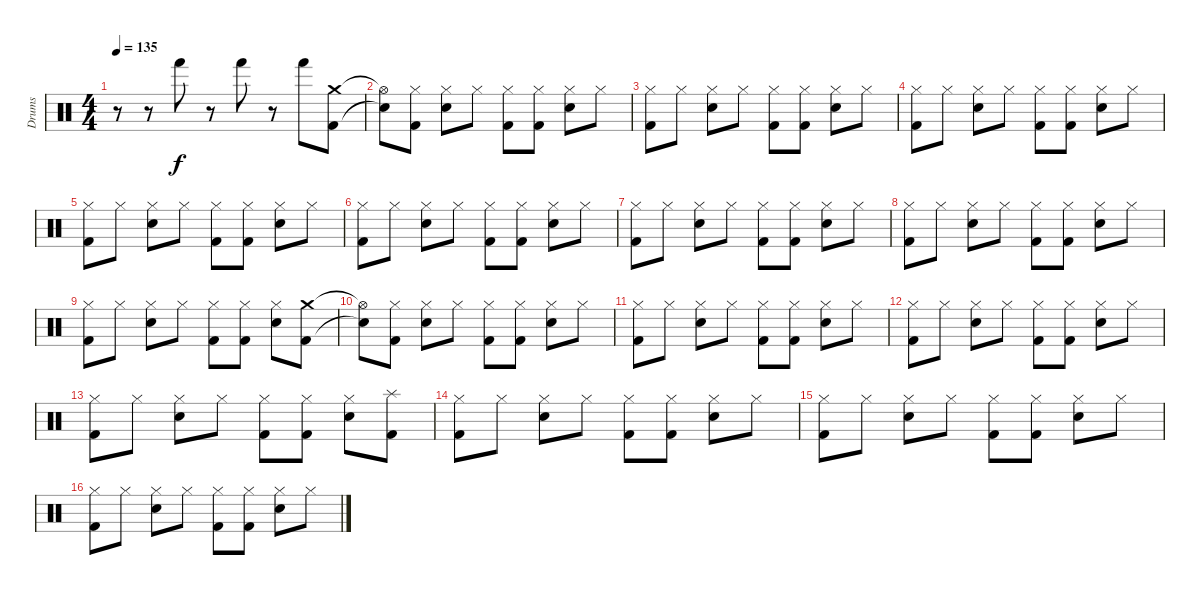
\track ("Drums" "Drums") {instrument percussion}
\staff {score}
\articulation defaults
\ts (4 4)
\tempo 135
\clef neutral
\ks c
r.8{dy f} r.8 "Hand (hit)".8 r.8 "Hand (hit)".8 r.8 "Hand (hit)".8 ("Crash medium (hit)" "Kick (hit) 2").8 |
("Hi-Hat (open)"{t} "Snare (hit)"{t}).8 ("Hi-Hat (closed)" "Kick (hit) 2").8 ("Hi-Hat (closed)" "Electric Snare (hit)").8 "Hi-Hat (closed)".8 ("Hi-Hat (closed)" "Kick (hit) 2").8 ("Hi-Hat (closed)" "Kick (hit) 2").8 ("Hi-Hat (closed)" "Electric Snare (hit)").8 "Hi-Hat (closed)".8 |
("Hi-Hat (closed)" "Kick (hit) 2").8 "Hi-Hat (closed)".8 ("Hi-Hat (closed)" "Electric Snare (hit)").8 "Hi-Hat (closed)".8 ("Hi-Hat (closed)" "Kick (hit) 2").8 ("Hi-Hat (closed)" "Kick (hit) 2").8 ("Hi-Hat (closed)" "Electric Snare (hit)").8 "Hi-Hat (closed)".8 |
("Hi-Hat (closed)" "Kick (hit) 2").8 "Hi-Hat (closed)".8 ("Hi-Hat (closed)" "Electric Snare (hit)").8 "Hi-Hat (closed)".8 ("Hi-Hat (closed)" "Kick (hit) 2").8 ("Hi-Hat (closed)" "Kick (hit) 2").8 ("Hi-Hat (closed)" "Electric Snare (hit)").8 "Hi-Hat (closed)".8 |
("Hi-Hat (closed)" "Kick (hit) 2").8 "Hi-Hat (closed)".8 ("Hi-Hat (closed)" "Electric Snare (hit)").8 "Hi-Hat (closed)".8 ("Hi-Hat (closed)" "Kick (hit) 2").8 ("Hi-Hat (closed)" "Kick (hit) 2").8 ("Hi-Hat (closed)" "Electric Snare (hit)").8 "Hi-Hat (closed)".8 |
("Hi-Hat (closed)" "Kick (hit) 2").8 "Hi-Hat (closed)".8 ("Hi-Hat (closed)" "Electric Snare (hit)").8 "Hi-Hat (closed)".8 ("Hi-Hat (closed)" "Kick (hit) 2").8 ("Hi-Hat (closed)" "Kick (hit) 2").8 ("Hi-Hat (closed)" "Electric Snare (hit)").8 "Hi-Hat (closed)".8 |
("Hi-Hat (closed)" "Kick (hit) 2").8 "Hi-Hat (closed)".8 ("Hi-Hat (closed)" "Electric Snare (hit)").8 "Hi-Hat (closed)".8 ("Hi-Hat (closed)" "Kick (hit) 2").8 ("Hi-Hat (closed)" "Kick (hit) 2").8 ("Hi-Hat (closed)" "Electric Snare (hit)").8 "Hi-Hat (closed)".8 |
("Hi-Hat (closed)" "Kick (hit) 2").8 "Hi-Hat (closed)".8 ("Hi-Hat (closed)" "Electric Snare (hit)").8 "Hi-Hat (closed)".8 ("Hi-Hat (closed)" "Kick (hit) 2").8 ("Hi-Hat (closed)" "Kick (hit) 2").8 ("Hi-Hat (closed)" "Electric Snare (hit)").8 "Hi-Hat (closed)".8 |
("Hi-Hat (closed)" "Kick (hit) 2").8 "Hi-Hat (closed)".8 ("Hi-Hat (closed)" "Electric Snare (hit)").8 "Hi-Hat (closed)".8 ("Hi-Hat (closed)" "Kick (hit) 2").8 ("Hi-Hat (closed)" "Kick (hit) 2").8 ("Hi-Hat (closed)" "Electric Snare (hit)").8 ("Crash medium (hit)" "Kick (hit) 2").8 |
("Hi-Hat (open)"{t} "Snare (hit)"{t}).8 ("Hi-Hat (closed)" "Kick (hit) 2").8 ("Hi-Hat (closed)" "Electric Snare (hit)").8 "Hi-Hat (closed)".8 ("Hi-Hat (closed)" "Kick (hit) 2").8 ("Hi-Hat (closed)" "Kick (hit) 2").8 ("Hi-Hat (closed)" "Electric Snare (hit)").8 "Hi-Hat (closed)".8 |
("Hi-Hat (closed)" "Kick (hit) 2").8 "Hi-Hat (closed)".8 ("Hi-Hat (closed)" "Electric Snare (hit)").8 "Hi-Hat (closed)".8 ("Hi-Hat (closed)" "Kick (hit) 2").8 ("Hi-Hat (closed)" "Kick (hit) 2").8 ("Hi-Hat (closed)" "Electric Snare (hit)").8 "Hi-Hat (closed)".8 |
("Hi-Hat (closed)" "Kick (hit) 2").8 "Hi-Hat (closed)".8 ("Hi-Hat (closed)" "Electric Snare (hit)").8 "Hi-Hat (closed)".8 ("Hi-Hat (closed)" "Kick (hit) 2").8 ("Hi-Hat (closed)" "Kick (hit) 2").8 ("Hi-Hat (closed)" "Electric Snare (hit)").8 "Hi-Hat (closed)".8 |
("Hi-Hat (closed)" "Kick (hit) 2").8 "Hi-Hat (closed)".8 ("Hi-Hat (closed)" "Electric Snare (hit)").8 "Hi-Hat (closed)".8 ("Hi-Hat (closed)" "Kick (hit) 2").8 ("Hi-Hat (closed)" "Kick (hit) 2").8 ("Hi-Hat (closed)" "Electric Snare (hit)").8 ("Splash (hit)" "Kick (hit) 2").8 |
("Hi-Hat (closed)" "Kick (hit) 2").8 "Hi-Hat (closed)".8 ("Hi-Hat (closed)" "Electric Snare (hit)").8 "Hi-Hat (closed)".8 ("Hi-Hat (closed)" "Kick (hit) 2").8 ("Hi-Hat (closed)" "Kick (hit) 2").8 ("Hi-Hat (closed)" "Electric Snare (hit)").8 "Hi-Hat (closed)".8 |
("Hi-Hat (closed)" "Kick (hit) 2").8 "Hi-Hat (closed)".8 ("Hi-Hat (closed)" "Electric Snare (hit)").8 "Hi-Hat (closed)".8 ("Hi-Hat (closed)" "Kick (hit) 2").8 ("Hi-Hat (closed)" "Kick (hit) 2").8 ("Hi-Hat (closed)" "Electric Snare (hit)").8 "Hi-Hat (closed)".8 |
("Hi-Hat (closed)" "Kick (hit) 2").8 "Hi-Hat (closed)".8 ("Hi-Hat (closed)" "Electric Snare (hit)").8 "Hi-Hat (closed)".8 ("Hi-Hat (closed)" "Kick (hit) 2").8 ("Hi-Hat (closed)" "Kick (hit) 2").8 ("Hi-Hat (closed)" "Electric Snare (hit)").8 "Hi-Hat (closed)".8
